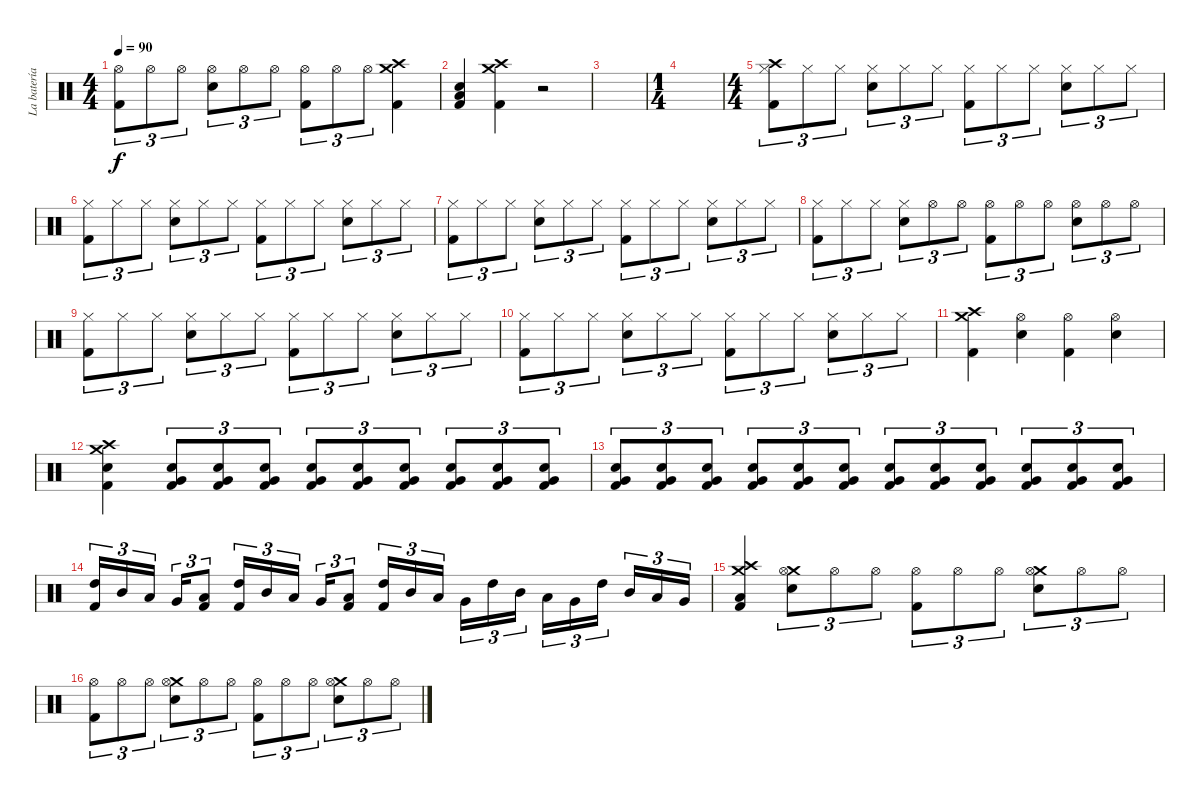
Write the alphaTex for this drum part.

\track ("La batería (con dos huevos xD)" "La batería") {instrument percussion}
\staff {score}
\articulation defaults
\ts (4 4)
\tempo 90
\clef neutral
\ks c
("Hi-Hat (open)" "Kick (hit) 2").8{tu (3 2) dy f} "Hi-Hat (open)".8{tu (3 2)} "Hi-Hat (open)".8{tu (3 2)} ("Hi-Hat (open)" "Electric Snare (hit)").8{tu (3 2)} "Hi-Hat (open)".8{tu (3 2)} "Hi-Hat (open)".8{tu (3 2)} ("Hi-Hat (open)" "Kick (hit) 2").8{tu (3 2)} "Hi-Hat (open)".8{tu (3 2)} "Hi-Hat (open)".8{tu (3 2)} ("Crash medium (hit)" "Crash high (hit)" "Kick (hit) 2").4 |
("Low Tom (hit)" "Electric Snare (hit)" "Kick (hit) 2").4 ("Crash medium (hit)" "Crash high (hit)" "Kick (hit) 2").4 r.2 |
|
\ts (1 4)
|
\ts (4 4)
("Crash high (hit)" "Hi-Hat (closed)" "Kick (hit) 2").8{tu (3 2)} "Hi-Hat (closed)".8{tu (3 2)} "Hi-Hat (closed)".8{tu (3 2)} ("Hi-Hat (closed)" "Electric Snare (hit)").8{tu (3 2)} "Hi-Hat (closed)".8{tu (3 2)} "Hi-Hat (closed)".8{tu (3 2)} ("Hi-Hat (closed)" "Kick (hit) 2").8{tu (3 2)} "Hi-Hat (closed)".8{tu (3 2)} "Hi-Hat (closed)".8{tu (3 2)} ("Hi-Hat (closed)" "Electric Snare (hit)").8{tu (3 2)} "Hi-Hat (closed)".8{tu (3 2)} "Hi-Hat (closed)".8{tu (3 2)} |
("Hi-Hat (closed)" "Kick (hit) 2").8{tu (3 2)} "Hi-Hat (closed)".8{tu (3 2)} "Hi-Hat (closed)".8{tu (3 2)} ("Hi-Hat (closed)" "Electric Snare (hit)").8{tu (3 2)} "Hi-Hat (closed)".8{tu (3 2)} "Hi-Hat (closed)".8{tu (3 2)} ("Hi-Hat (closed)" "Kick (hit) 2").8{tu (3 2)} "Hi-Hat (closed)".8{tu (3 2)} "Hi-Hat (closed)".8{tu (3 2)} ("Hi-Hat (closed)" "Electric Snare (hit)").8{tu (3 2)} "Hi-Hat (closed)".8{tu (3 2)} "Hi-Hat (closed)".8{tu (3 2)} |
("Hi-Hat (closed)" "Kick (hit) 2").8{tu (3 2)} "Hi-Hat (closed)".8{tu (3 2)} "Hi-Hat (closed)".8{tu (3 2)} ("Hi-Hat (closed)" "Electric Snare (hit)").8{tu (3 2)} "Hi-Hat (closed)".8{tu (3 2)} "Hi-Hat (closed)".8{tu (3 2)} ("Hi-Hat (closed)" "Kick (hit) 2").8{tu (3 2)} "Hi-Hat (closed)".8{tu (3 2)} "Hi-Hat (closed)".8{tu (3 2)} ("Hi-Hat (closed)" "Electric Snare (hit)").8{tu (3 2)} "Hi-Hat (closed)".8{tu (3 2)} "Hi-Hat (closed)".8{tu (3 2)} |
("Hi-Hat (closed)" "Kick (hit) 2").8{tu (3 2)} "Hi-Hat (closed)".8{tu (3 2)} "Hi-Hat (closed)".8{tu (3 2)} ("Hi-Hat (closed)" "Electric Snare (hit)").8{tu (3 2)} "Hi-Hat (open)".8{tu (3 2)} "Hi-Hat (open)".8{tu (3 2)} ("Hi-Hat (open)" "Kick (hit) 2").8{tu (3 2)} "Hi-Hat (open)".8{tu (3 2)} "Hi-Hat (open)".8{tu (3 2)} ("Hi-Hat (open)" "Electric Snare (hit)").8{tu (3 2)} "Hi-Hat (open)".8{tu (3 2)} "Hi-Hat (open)".8{tu (3 2)} |
("Hi-Hat (closed)" "Kick (hit) 2").8{tu (3 2)} "Hi-Hat (closed)".8{tu (3 2)} "Hi-Hat (closed)".8{tu (3 2)} ("Hi-Hat (closed)" "Electric Snare (hit)").8{tu (3 2)} "Hi-Hat (closed)".8{tu (3 2)} "Hi-Hat (closed)".8{tu (3 2)} ("Hi-Hat (closed)" "Kick (hit) 2").8{tu (3 2)} "Hi-Hat (closed)".8{tu (3 2)} "Hi-Hat (closed)".8{tu (3 2)} ("Hi-Hat (closed)" "Electric Snare (hit)").8{tu (3 2)} "Hi-Hat (closed)".8{tu (3 2)} "Hi-Hat (closed)".8{tu (3 2)} |
("Hi-Hat (closed)" "Kick (hit) 2").8{tu (3 2)} "Hi-Hat (closed)".8{tu (3 2)} "Hi-Hat (closed)".8{tu (3 2)} ("Hi-Hat (closed)" "Electric Snare (hit)").8{tu (3 2)} "Hi-Hat (closed)".8{tu (3 2)} "Hi-Hat (closed)".8{tu (3 2)} ("Hi-Hat (closed)" "Kick (hit) 2").8{tu (3 2)} "Hi-Hat (closed)".8{tu (3 2)} "Hi-Hat (closed)".8{tu (3 2)} ("Hi-Hat (closed)" "Electric Snare (hit)").8{tu (3 2)} "Hi-Hat (closed)".8{tu (3 2)} "Hi-Hat (closed)".8{tu (3 2)} |
("Crash high (hit)" "Crash medium (hit)" "Kick (hit) 2").4 ("Hi-Hat (open)" "Electric Snare (hit)").4 ("Hi-Hat (open)" "Kick (hit) 2").4 ("Hi-Hat (open)" "Electric Snare (hit)").4 |
("Crash medium (hit)" "Crash high (hit)" "Electric Snare (hit)" "Kick (hit) 2").4 ("Electric Snare (hit)" "Very Low Tom (hit)" "Kick (hit) 2").8{tu (3 2)} ("Electric Snare (hit)" "Very Low Tom (hit)" "Kick (hit) 2").8{tu (3 2)} ("Electric Snare (hit)" "Very Low Tom (hit)" "Kick (hit) 2").8{tu (3 2)} ("Electric Snare (hit)" "Very Low Tom (hit)" "Kick (hit) 2").8{tu (3 2)} ("Electric Snare (hit)" "Very Low Tom (hit)" "Kick (hit) 2").8{tu (3 2)} ("Electric Snare (hit)" "Very Low Tom (hit)" "Kick (hit) 2").8{tu (3 2)} ("Electric Snare (hit)" "Very Low Tom (hit)" "Kick (hit) 2").8{tu (3 2)} ("Electric Snare (hit)" "Very Low Tom (hit)" "Kick (hit) 2").8{tu (3 2)} ("Electric Snare (hit)" "Very Low Tom (hit)" "Kick (hit) 2").8{tu (3 2)} |
("Electric Snare (hit)" "Very Low Tom (hit)" "Kick (hit) 2").8{tu (3 2)} ("Electric Snare (hit)" "Very Low Tom (hit)" "Kick (hit) 2").8{tu (3 2)} ("Electric Snare (hit)" "Very Low Tom (hit)" "Kick (hit) 2").8{tu (3 2)} ("Electric Snare (hit)" "Very Low Tom (hit)" "Kick (hit) 2").8{tu (3 2)} ("Electric Snare (hit)" "Very Low Tom (hit)" "Kick (hit) 2").8{tu (3 2)} ("Electric Snare (hit)" "Very Low Tom (hit)" "Kick (hit) 2").8{tu (3 2)} ("Electric Snare (hit)" "Very Low Tom (hit)" "Kick (hit) 2").8{tu (3 2)} ("Electric Snare (hit)" "Very Low Tom (hit)" "Kick (hit) 2").8{tu (3 2)} ("Electric Snare (hit)" "Very Low Tom (hit)" "Kick (hit) 2").8{tu (3 2)} ("Electric Snare (hit)" "Very Low Tom (hit)" "Kick (hit) 2").8{tu (3 2)} ("Electric Snare (hit)" "Very Low Tom (hit)" "Kick (hit) 2").8{tu (3 2)} ("Electric Snare (hit)" "Very Low Tom (hit)" "Kick (hit) 2").8{tu (3 2)} |
("High Tom (hit)" "Kick (hit) 2").16{tu (3 2)} "Mid Tom (hit)".16{tu (3 2)} "Low Tom (hit)".16{tu (3 2) beam splitsecondary} "Very Low Tom (hit)".16{tu (3 2)} ("Low Floor Tom (hit)" "Kick (hit) 2").8{tu (3 2)} ("High Tom (hit)" "Kick (hit) 2").16{tu (3 2)} "Mid Tom (hit)".16{tu (3 2)} "Low Tom (hit)".16{tu (3 2) beam splitsecondary} "Very Low Tom (hit)".16{tu (3 2)} ("Low Floor Tom (hit)" "Kick (hit) 2").8{tu (3 2)} ("High Tom (hit)" "Kick (hit) 2").16{tu (3 2)} "Mid Tom (hit)".16{tu (3 2)} "Low Tom (hit)".16{tu (3 2) beam splitsecondary} "Very Low Tom (hit)".16{tu (3 2)} "High Tom (hit)".16{tu (3 2)} "Mid Tom (hit)".16{tu (3 2)} "Low Tom (hit)".16{tu (3 2)} "Very Low Tom (hit)".16{tu (3 2)} "High Tom (hit)".16{tu (3 2) beam splitsecondary} "Mid Tom (hit)".16{tu (3 2)} "Low Tom (hit)".16{tu (3 2)} "Very Low Tom (hit)".16{tu (3 2)} |
("Crash medium (hit)" "Crash high (hit)" "Low Floor Tom (hit)" "Kick (hit) 2").4 ("Crash medium (hit)" "Hi-Hat (open)" "Electric Snare (hit)").8{tu (3 2)} "Hi-Hat (open)".8{tu (3 2)} "Hi-Hat (open)".8{tu (3 2)} ("Hi-Hat (open)" "Kick (hit) 2").8{tu (3 2)} "Hi-Hat (open)".8{tu (3 2)} "Hi-Hat (open)".8{tu (3 2)} ("Crash medium (hit)" "Hi-Hat (open)" "Electric Snare (hit)").8{tu (3 2)} "Hi-Hat (open)".8{tu (3 2)} "Hi-Hat (open)".8{tu (3 2)} |
("Hi-Hat (open)" "Kick (hit) 2").8{tu (3 2)} "Hi-Hat (open)".8{tu (3 2)} "Hi-Hat (open)".8{tu (3 2)} ("Crash medium (hit)" "Hi-Hat (open)" "Electric Snare (hit)").8{tu (3 2)} "Hi-Hat (open)".8{tu (3 2)} "Hi-Hat (open)".8{tu (3 2)} ("Hi-Hat (open)" "Kick (hit) 2").8{tu (3 2)} "Hi-Hat (open)".8{tu (3 2)} "Hi-Hat (open)".8{tu (3 2)} ("Crash medium (hit)" "Hi-Hat (open)" "Electric Snare (hit)").8{tu (3 2)} "Hi-Hat (open)".8{tu (3 2)} "Hi-Hat (open)".8{tu (3 2)}
